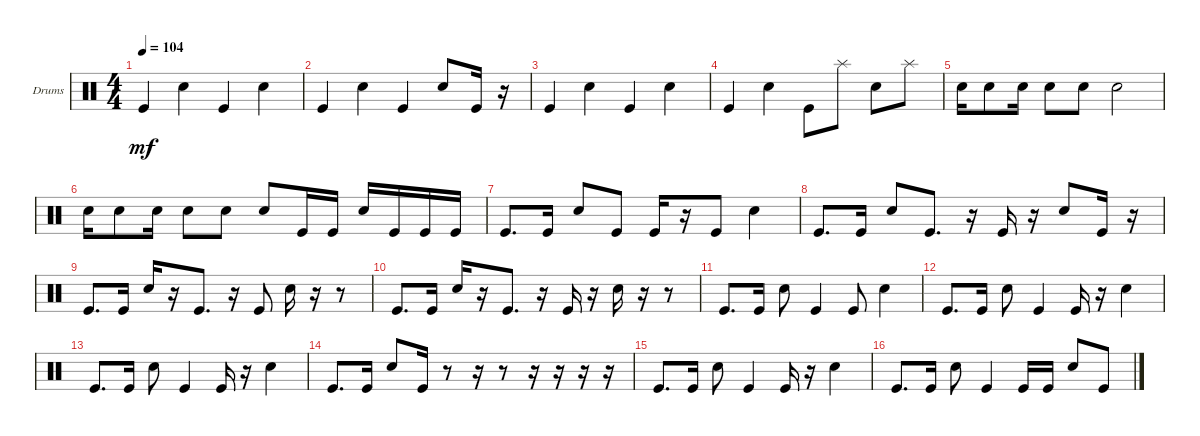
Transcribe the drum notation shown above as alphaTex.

\bracketExtendMode groupsimilarinstruments
\firstSystemTrackNameOrientation horizontal
\otherSystemsTrackNameOrientation horizontal
\track ("Drums" "Drums") {instrument percussion}
\staff {score}
\articulation defaults
\ts (4 4)
\tempo 104
\clef neutral
\ks c "Kick (hit)".4{dy mf} "Snare (hit) 2".4 "Kick (hit)".4 "Snare (hit) 2".4
|
"Kick (hit)".4 "Snare (hit) 2".4 "Kick (hit)".4 "Snare (hit) 2".8 "Kick (hit)".16 r.16 |
"Kick (hit)".4 "Snare (hit) 2".4 "Kick (hit)".4 "Snare (hit) 2".4 |
"Kick (hit)".4 "Snare (hit) 2".4 "Kick (hit)".8 "Splash (hit)".8 "Snare (hit) 2".8 "Splash (hit)".8 |
"Snare (hit) 2".16 "Snare (hit) 2".8 "Snare (hit) 2".16 "Snare (hit) 2".8 "Snare (hit) 2".8 "Snare (hit) 2".2 |
"Snare (hit) 2".16 "Snare (hit) 2".8 "Snare (hit) 2".16 "Snare (hit) 2".8 "Snare (hit) 2".8 "Snare (hit) 2".8 "Kick (hit)".16 "Kick (hit)".16 "Snare (hit) 2".16 "Kick (hit)".16 "Kick (hit)".16 "Kick (hit)".16 |
"Kick (hit)".8{d} "Kick (hit)".16 "Snare (hit) 2".8 "Kick (hit)".8 "Kick (hit)".16 r.16 "Kick (hit)".8 "Snare (hit) 2".4 |
"Kick (hit)".8{d} "Kick (hit)".16 "Snare (hit) 2".8 "Kick (hit)".8{d} r.16 "Kick (hit)".16 r.16 "Snare (hit) 2".8 "Kick (hit)".16 r.16 |
"Kick (hit)".8{d} "Kick (hit)".16 "Snare (hit) 2".16 r.16 "Kick (hit)".8{d} r.16 "Kick (hit)".8 "Snare (hit) 2".16 r.16 r.8 |
"Kick (hit)".8{d} "Kick (hit)".16 "Snare (hit) 2".16 r.16 "Kick (hit)".8{d} r.16 "Kick (hit)".16 r.16 "Snare (hit) 2".16 r.16 r.8 |
"Kick (hit)".8{d} "Kick (hit)".16 "Snare (hit) 2".8 "Kick (hit)".4 "Kick (hit)".8 "Snare (hit) 2".4 |
"Kick (hit)".8{d} "Kick (hit)".16 "Snare (hit) 2".8 "Kick (hit)".4 "Kick (hit)".16 r.16 "Snare (hit) 2".4 |
"Kick (hit)".8{d} "Kick (hit)".16 "Snare (hit) 2".8 "Kick (hit)".4 "Kick (hit)".16 r.16 "Snare (hit) 2".4 |
"Kick (hit)".8{d} "Kick (hit)".16 "Snare (hit) 2".8 "Kick (hit)".16 r.8 r.16 r.8 r.16 r.16 r.16 r.16 |
"Kick (hit)".8{d} "Kick (hit)".16 "Snare (hit) 2".8 "Kick (hit)".4 "Kick (hit)".16 r.16 "Snare (hit) 2".4 |
"Kick (hit)".8{d} "Kick (hit)".16 "Snare (hit) 2".8 "Kick (hit)".4 "Kick (hit)".16 "Kick (hit)".16 "Snare (hit) 2".8 "Kick (hit)".8
